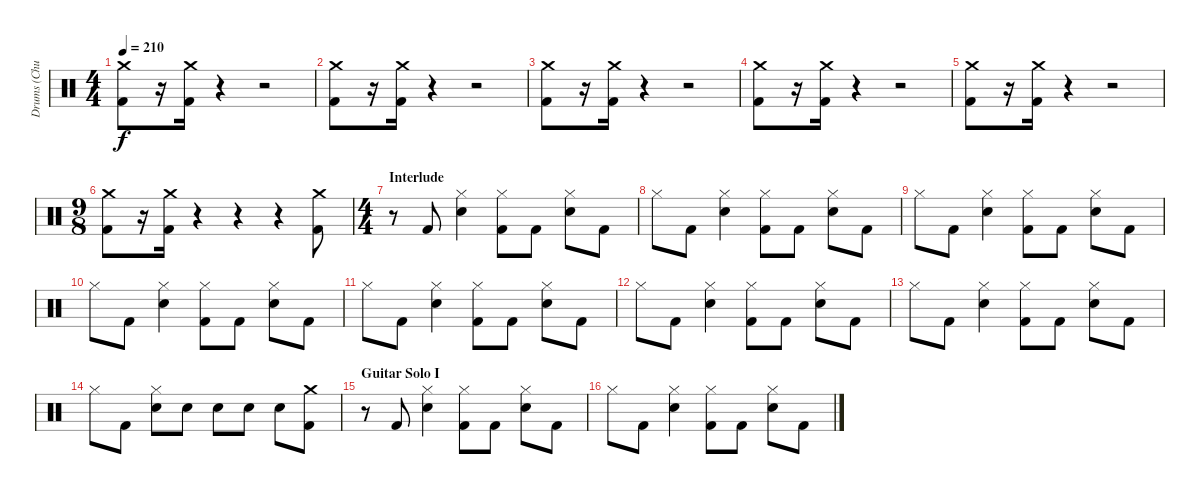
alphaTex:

\track ("Drums (Chuck Behler)" "Drums (Chu") {instrument percussion}
\staff {score}
\articulation defaults
\ts (4 4)
\tempo 210
\clef neutral
\ks c
("Crash medium (hit)" "Kick (hit) 2").8{dy f} r.16 ("Crash medium (hit)" "Kick (hit) 2").16 r.4 r.2 |
("Crash medium (hit)" "Kick (hit) 2").8 r.16 ("Crash medium (hit)" "Kick (hit) 2").16 r.4 r.2 |
("Crash medium (hit)" "Kick (hit) 2").8 r.16 ("Crash medium (hit)" "Kick (hit) 2").16 r.4 r.2 |
("Crash medium (hit)" "Kick (hit) 2").8 r.16 ("Crash medium (hit)" "Kick (hit) 2").16 r.4 r.2 |
("Crash medium (hit)" "Kick (hit) 2").8 r.16 ("Crash medium (hit)" "Kick (hit) 2").16 r.4 r.2 |
\ts (9 8)
("Crash medium (hit)" "Kick (hit) 2").8 r.16 ("Crash medium (hit)" "Kick (hit) 2").16 r.4 r.4 r.4 ("Crash medium (hit)" "Kick (hit) 2").8 |
\ts (4 4)
\section ("" "Interlude")
r.8 "Kick (hit) 2".8 ("Hi-Hat (closed)" "Snare (hit) 2").4 ("Hi-Hat (closed)" "Kick (hit) 2").8 "Kick (hit) 2".8 ("Hi-Hat (closed)" "Snare (hit) 2").8 "Kick (hit) 2".8 |
"Hi-Hat (closed)".8 "Kick (hit) 2".8 ("Hi-Hat (closed)" "Snare (hit) 2").4 ("Hi-Hat (closed)" "Kick (hit) 2").8 "Kick (hit) 2".8 ("Hi-Hat (closed)" "Snare (hit) 2").8 "Kick (hit) 2".8 |
"Hi-Hat (closed)".8 "Kick (hit) 2".8 ("Hi-Hat (closed)" "Snare (hit) 2").4 ("Hi-Hat (closed)" "Kick (hit) 2").8 "Kick (hit) 2".8 ("Hi-Hat (closed)" "Snare (hit) 2").8 "Kick (hit) 2".8 |
"Hi-Hat (closed)".8 "Kick (hit) 2".8 ("Hi-Hat (closed)" "Snare (hit) 2").4 ("Hi-Hat (closed)" "Kick (hit) 2").8 "Kick (hit) 2".8 ("Hi-Hat (closed)" "Snare (hit) 2").8 "Kick (hit) 2".8 |
"Hi-Hat (closed)".8 "Kick (hit) 2".8 ("Hi-Hat (closed)" "Snare (hit) 2").4 ("Hi-Hat (closed)" "Kick (hit) 2").8 "Kick (hit) 2".8 ("Hi-Hat (closed)" "Snare (hit) 2").8 "Kick (hit) 2".8 |
"Hi-Hat (closed)".8 "Kick (hit) 2".8 ("Hi-Hat (closed)" "Snare (hit) 2").4 ("Hi-Hat (closed)" "Kick (hit) 2").8 "Kick (hit) 2".8 ("Hi-Hat (closed)" "Snare (hit) 2").8 "Kick (hit) 2".8 |
"Hi-Hat (closed)".8 "Kick (hit) 2".8 ("Hi-Hat (closed)" "Snare (hit) 2").4 ("Hi-Hat (closed)" "Kick (hit) 2").8 "Kick (hit) 2".8 ("Hi-Hat (closed)" "Snare (hit) 2").8 "Kick (hit) 2".8 |
"Hi-Hat (closed)".8 "Kick (hit) 2".8 ("Hi-Hat (closed)" "Snare (hit) 2").8 "Snare (hit) 2".8 "Snare (hit) 2".8 "Snare (hit) 2".8 "Snare (hit) 2".8 ("Crash medium (hit)" "Kick (hit) 2").8 |
\section ("" "Guitar Solo I")
r.8 "Kick (hit) 2".8 ("Hi-Hat (closed)" "Snare (hit) 2").4 ("Hi-Hat (closed)" "Kick (hit) 2").8 "Kick (hit) 2".8 ("Hi-Hat (closed)" "Snare (hit) 2").8 "Kick (hit) 2".8 |
"Hi-Hat (closed)".8 "Kick (hit) 2".8 ("Hi-Hat (closed)" "Snare (hit) 2").4 ("Hi-Hat (closed)" "Kick (hit) 2").8 "Kick (hit) 2".8 ("Hi-Hat (closed)" "Snare (hit) 2").8 "Kick (hit) 2".8
